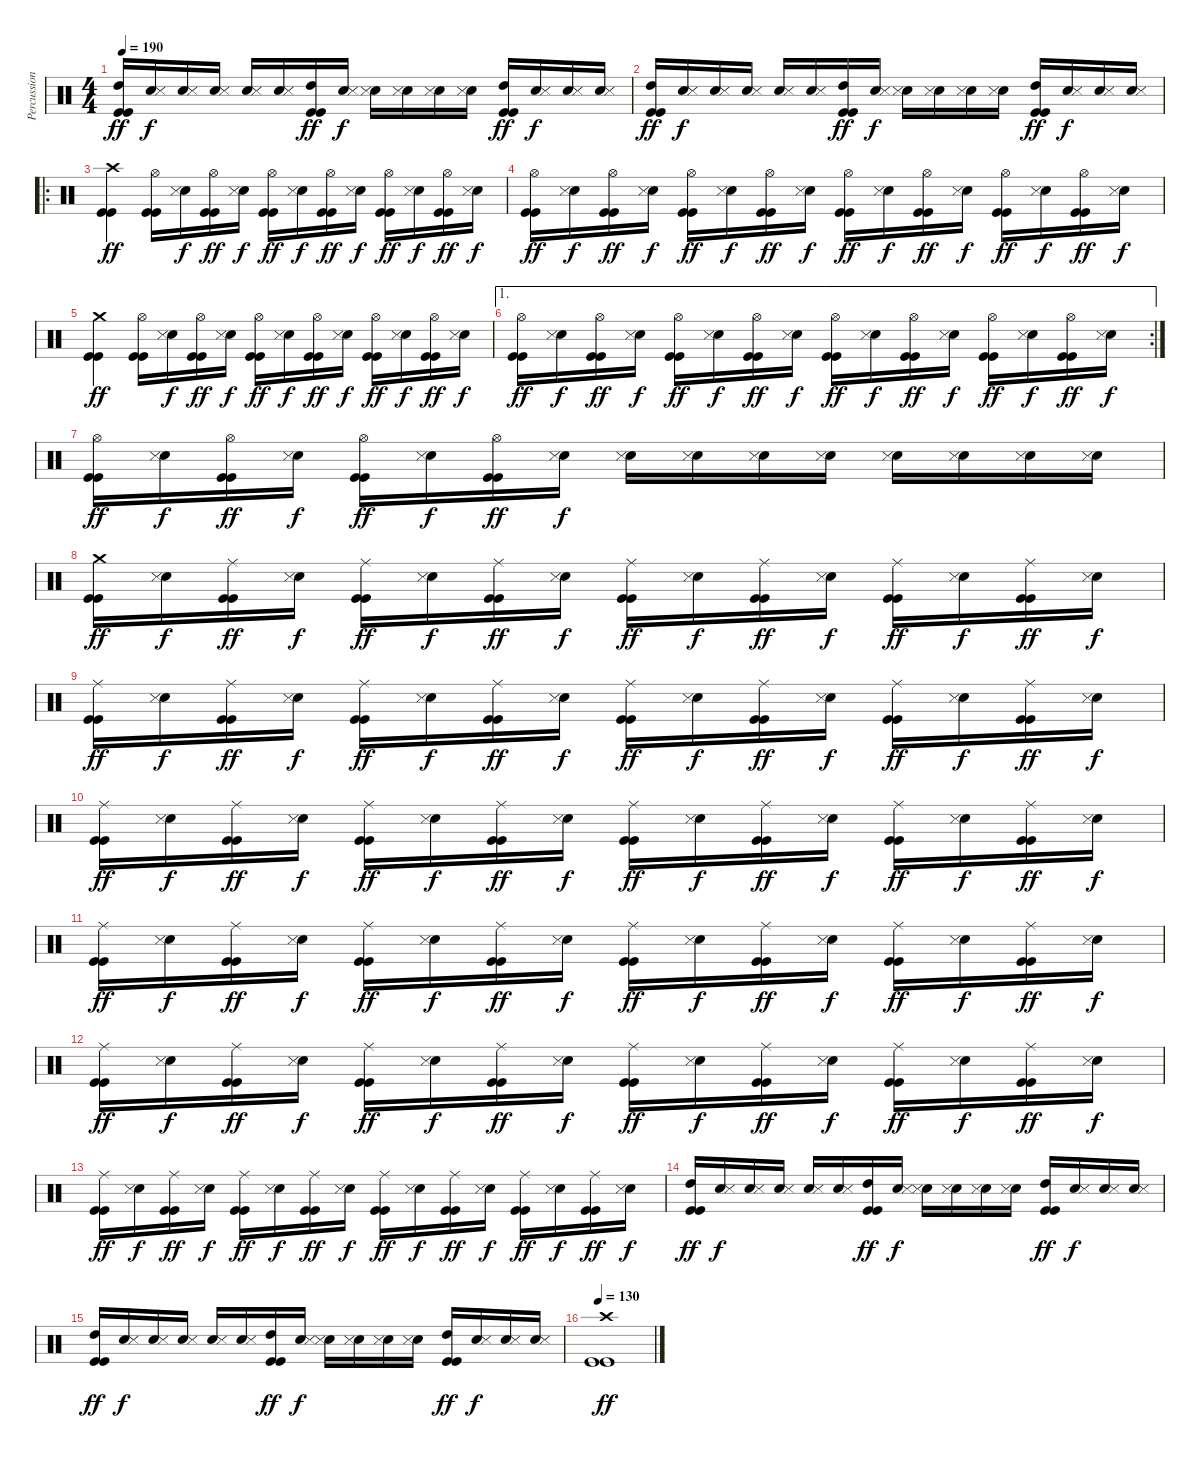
\track ("Percussion" "Percussion") {instrument percussion}
\staff {score}
\articulation defaults
\ts (4 4)
\tempo 190
\clef neutral
\ks c
("High Tom (hit)" "Kick (hit)" "Kick (hit)").16{dy ff} ("Electric Snare (hit)" "Snare (side stick) 3").16{dy f} ("Electric Snare (hit)" "Snare (side stick) 3").16 ("Electric Snare (hit)" "Snare (side stick) 3").16 ("Electric Snare (hit)" "Snare (side stick) 3").16 ("Electric Snare (hit)" "Snare (side stick) 3").16 ("High Tom (hit)" "Kick (hit)" "Kick (hit)").16{dy ff} ("Electric Snare (hit)" "Snare (side stick) 3").16{dy f} ("Electric Snare (hit)" "Snare (side stick) 3").16 ("Electric Snare (hit)" "Snare (side stick) 3").16 ("Electric Snare (hit)" "Snare (side stick) 3").16 ("Electric Snare (hit)" "Snare (side stick) 3").16 ("High Tom (hit)" "Kick (hit)" "Kick (hit)").16{dy ff} ("Electric Snare (hit)" "Snare (side stick) 3").16{dy f} ("Electric Snare (hit)" "Snare (side stick) 3").16 ("Electric Snare (hit)" "Snare (side stick) 3").16 |
("High Tom (hit)" "Kick (hit)" "Kick (hit)").16{dy ff} ("Electric Snare (hit)" "Snare (side stick) 3").16{dy f} ("Electric Snare (hit)" "Snare (side stick) 3").16 ("Electric Snare (hit)" "Snare (side stick) 3").16 ("Electric Snare (hit)" "Snare (side stick) 3").16 ("Electric Snare (hit)" "Snare (side stick) 3").16 ("High Tom (hit)" "Kick (hit)" "Kick (hit)").16{dy ff} ("Electric Snare (hit)" "Snare (side stick) 3").16{dy f} ("Electric Snare (hit)" "Snare (side stick) 3").16 ("Electric Snare (hit)" "Snare (side stick) 3").16 ("Electric Snare (hit)" "Snare (side stick) 3").16 ("Electric Snare (hit)" "Snare (side stick) 3").16 ("High Tom (hit)" "Kick (hit)" "Kick (hit)").16{dy ff} ("Electric Snare (hit)" "Snare (side stick) 3").16{dy f} ("Electric Snare (hit)" "Snare (side stick) 3").16 ("Electric Snare (hit)" "Snare (side stick) 3").16 |
\ro
("Crash high (hit)" "Kick (hit)" "Kick (hit)").4{dy ff} ("Hi-Hat (open)" "Kick (hit)" "Kick (hit)").16 ("Electric Snare (hit)" "Snare (side stick) 3").16{dy f} ("Hi-Hat (open)" "Kick (hit)" "Kick (hit)").16{dy ff} ("Electric Snare (hit)" "Snare (side stick) 3").16{dy f} ("Hi-Hat (open)" "Kick (hit)" "Kick (hit)").16{dy ff} ("Electric Snare (hit)" "Snare (side stick) 3").16{dy f} ("Hi-Hat (open)" "Kick (hit)" "Kick (hit)").16{dy ff} ("Electric Snare (hit)" "Snare (side stick) 3").16{dy f} ("Hi-Hat (open)" "Kick (hit)" "Kick (hit)").16{dy ff} ("Electric Snare (hit)" "Snare (side stick) 3").16{dy f} ("Hi-Hat (open)" "Kick (hit)" "Kick (hit)").16{dy ff} ("Electric Snare (hit)" "Snare (side stick) 3").16{dy f} |
("Hi-Hat (open)" "Kick (hit)" "Kick (hit)").16{dy ff} ("Electric Snare (hit)" "Snare (side stick) 3").16{dy f} ("Hi-Hat (open)" "Kick (hit)" "Kick (hit)").16{dy ff} ("Electric Snare (hit)" "Snare (side stick) 3").16{dy f} ("Hi-Hat (open)" "Kick (hit)" "Kick (hit)").16{dy ff} ("Electric Snare (hit)" "Snare (side stick) 3").16{dy f} ("Hi-Hat (open)" "Kick (hit)" "Kick (hit)").16{dy ff} ("Electric Snare (hit)" "Snare (side stick) 3").16{dy f} ("Hi-Hat (open)" "Kick (hit)" "Kick (hit)").16{dy ff} ("Electric Snare (hit)" "Snare (side stick) 3").16{dy f} ("Hi-Hat (open)" "Kick (hit)" "Kick (hit)").16{dy ff} ("Electric Snare (hit)" "Snare (side stick) 3").16{dy f} ("Hi-Hat (open)" "Kick (hit)" "Kick (hit)").16{dy ff} ("Electric Snare (hit)" "Snare (side stick) 3").16{dy f} ("Hi-Hat (open)" "Kick (hit)" "Kick (hit)").16{dy ff} ("Electric Snare (hit)" "Snare (side stick) 3").16{dy f} |
("Crash medium (hit)" "Kick (hit)" "Kick (hit)").4{dy ff} ("Hi-Hat (open)" "Kick (hit)" "Kick (hit)").16 ("Electric Snare (hit)" "Snare (side stick) 3").16{dy f} ("Hi-Hat (open)" "Kick (hit)" "Kick (hit)").16{dy ff} ("Electric Snare (hit)" "Snare (side stick) 3").16{dy f} ("Hi-Hat (open)" "Kick (hit)" "Kick (hit)").16{dy ff} ("Electric Snare (hit)" "Snare (side stick) 3").16{dy f} ("Hi-Hat (open)" "Kick (hit)" "Kick (hit)").16{dy ff} ("Electric Snare (hit)" "Snare (side stick) 3").16{dy f} ("Hi-Hat (open)" "Kick (hit)" "Kick (hit)").16{dy ff} ("Electric Snare (hit)" "Snare (side stick) 3").16{dy f} ("Hi-Hat (open)" "Kick (hit)" "Kick (hit)").16{dy ff} ("Electric Snare (hit)" "Snare (side stick) 3").16{dy f} |
\ae 1
\rc 2
("Hi-Hat (open)" "Kick (hit)" "Kick (hit)").16{dy ff} ("Electric Snare (hit)" "Snare (side stick) 3").16{dy f} ("Hi-Hat (open)" "Kick (hit)" "Kick (hit)").16{dy ff} ("Electric Snare (hit)" "Snare (side stick) 3").16{dy f} ("Hi-Hat (open)" "Kick (hit)" "Kick (hit)").16{dy ff} ("Electric Snare (hit)" "Snare (side stick) 3").16{dy f} ("Hi-Hat (open)" "Kick (hit)" "Kick (hit)").16{dy ff} ("Electric Snare (hit)" "Snare (side stick) 3").16{dy f} ("Hi-Hat (open)" "Kick (hit)" "Kick (hit)").16{dy ff} ("Electric Snare (hit)" "Snare (side stick) 3").16{dy f} ("Hi-Hat (open)" "Kick (hit)" "Kick (hit)").16{dy ff} ("Electric Snare (hit)" "Snare (side stick) 3").16{dy f} ("Hi-Hat (open)" "Kick (hit)" "Kick (hit)").16{dy ff} ("Electric Snare (hit)" "Snare (side stick) 3").16{dy f} ("Hi-Hat (open)" "Kick (hit)" "Kick (hit)").16{dy ff} ("Electric Snare (hit)" "Snare (side stick) 3").16{dy f} |
("Hi-Hat (open)" "Kick (hit)" "Kick (hit)").16{dy ff} ("Electric Snare (hit)" "Snare (side stick) 3").16{dy f} ("Hi-Hat (open)" "Kick (hit)" "Kick (hit)").16{dy ff} ("Electric Snare (hit)" "Snare (side stick) 3").16{dy f} ("Hi-Hat (open)" "Kick (hit)" "Kick (hit)").16{dy ff} ("Electric Snare (hit)" "Snare (side stick) 3").16{dy f} ("Hi-Hat (open)" "Kick (hit)" "Kick (hit)").16{dy ff} ("Electric Snare (hit)" "Snare (side stick) 3").16{dy f} ("Electric Snare (hit)" "Snare (side stick) 3").16 ("Electric Snare (hit)" "Snare (side stick) 3").16 ("Electric Snare (hit)" "Snare (side stick) 3").16 ("Electric Snare (hit)" "Snare (side stick) 3").16 ("Electric Snare (hit)" "Snare (side stick) 3").16 ("Electric Snare (hit)" "Snare (side stick) 3").16 ("Electric Snare (hit)" "Snare (side stick) 3").16 ("Electric Snare (hit)" "Snare (side stick) 3").16 |
("Crash medium (hit)" "Kick (hit)" "Kick (hit)").16{dy ff} ("Electric Snare (hit)" "Snare (side stick) 3").16{dy f} ("Ride (middle)" "Kick (hit)" "Kick (hit)").16{dy ff} ("Electric Snare (hit)" "Snare (side stick) 3").16{dy f} ("Ride (middle)" "Kick (hit)" "Kick (hit)").16{dy ff} ("Electric Snare (hit)" "Snare (side stick) 3").16{dy f} ("Ride (middle)" "Kick (hit)" "Kick (hit)").16{dy ff} ("Electric Snare (hit)" "Snare (side stick) 3").16{dy f} ("Ride (middle)" "Kick (hit)" "Kick (hit)").16{dy ff} ("Electric Snare (hit)" "Snare (side stick) 3").16{dy f} ("Ride (middle)" "Kick (hit)" "Kick (hit)").16{dy ff} ("Electric Snare (hit)" "Snare (side stick) 3").16{dy f} ("Ride (middle)" "Kick (hit)" "Kick (hit)").16{dy ff} ("Electric Snare (hit)" "Snare (side stick) 3").16{dy f} ("Ride (middle)" "Kick (hit)" "Kick (hit)").16{dy ff} ("Electric Snare (hit)" "Snare (side stick) 3").16{dy f} |
("Ride (middle)" "Kick (hit)" "Kick (hit)").16{dy ff} ("Electric Snare (hit)" "Snare (side stick) 3").16{dy f} ("Ride (middle)" "Kick (hit)" "Kick (hit)").16{dy ff} ("Electric Snare (hit)" "Snare (side stick) 3").16{dy f} ("Ride (middle)" "Kick (hit)" "Kick (hit)").16{dy ff} ("Electric Snare (hit)" "Snare (side stick) 3").16{dy f} ("Ride (middle)" "Kick (hit)" "Kick (hit)").16{dy ff} ("Electric Snare (hit)" "Snare (side stick) 3").16{dy f} ("Ride (middle)" "Kick (hit)" "Kick (hit)").16{dy ff} ("Electric Snare (hit)" "Snare (side stick) 3").16{dy f} ("Ride (middle)" "Kick (hit)" "Kick (hit)").16{dy ff} ("Electric Snare (hit)" "Snare (side stick) 3").16{dy f} ("Ride (middle)" "Kick (hit)" "Kick (hit)").16{dy ff} ("Electric Snare (hit)" "Snare (side stick) 3").16{dy f} ("Ride (middle)" "Kick (hit)" "Kick (hit)").16{dy ff} ("Electric Snare (hit)" "Snare (side stick) 3").16{dy f} |
("Ride (middle)" "Kick (hit)" "Kick (hit)").16{dy ff} ("Electric Snare (hit)" "Snare (side stick) 3").16{dy f} ("Ride (middle)" "Kick (hit)" "Kick (hit)").16{dy ff} ("Electric Snare (hit)" "Snare (side stick) 3").16{dy f} ("Ride (middle)" "Kick (hit)" "Kick (hit)").16{dy ff} ("Electric Snare (hit)" "Snare (side stick) 3").16{dy f} ("Ride (middle)" "Kick (hit)" "Kick (hit)").16{dy ff} ("Electric Snare (hit)" "Snare (side stick) 3").16{dy f} ("Ride (middle)" "Kick (hit)" "Kick (hit)").16{dy ff} ("Electric Snare (hit)" "Snare (side stick) 3").16{dy f} ("Ride (middle)" "Kick (hit)" "Kick (hit)").16{dy ff} ("Electric Snare (hit)" "Snare (side stick) 3").16{dy f} ("Ride (middle)" "Kick (hit)" "Kick (hit)").16{dy ff} ("Electric Snare (hit)" "Snare (side stick) 3").16{dy f} ("Ride (middle)" "Kick (hit)" "Kick (hit)").16{dy ff} ("Electric Snare (hit)" "Snare (side stick) 3").16{dy f} |
("Ride (middle)" "Kick (hit)" "Kick (hit)").16{dy ff} ("Electric Snare (hit)" "Snare (side stick) 3").16{dy f} ("Ride (middle)" "Kick (hit)" "Kick (hit)").16{dy ff} ("Electric Snare (hit)" "Snare (side stick) 3").16{dy f} ("Ride (middle)" "Kick (hit)" "Kick (hit)").16{dy ff} ("Electric Snare (hit)" "Snare (side stick) 3").16{dy f} ("Ride (middle)" "Kick (hit)" "Kick (hit)").16{dy ff} ("Electric Snare (hit)" "Snare (side stick) 3").16{dy f} ("Ride (middle)" "Kick (hit)" "Kick (hit)").16{dy ff} ("Electric Snare (hit)" "Snare (side stick) 3").16{dy f} ("Ride (middle)" "Kick (hit)" "Kick (hit)").16{dy ff} ("Electric Snare (hit)" "Snare (side stick) 3").16{dy f} ("Ride (middle)" "Kick (hit)" "Kick (hit)").16{dy ff} ("Electric Snare (hit)" "Snare (side stick) 3").16{dy f} ("Ride (middle)" "Kick (hit)" "Kick (hit)").16{dy ff} ("Electric Snare (hit)" "Snare (side stick) 3").16{dy f} |
("Ride (middle)" "Kick (hit)" "Kick (hit)").16{dy ff} ("Electric Snare (hit)" "Snare (side stick) 3").16{dy f} ("Ride (middle)" "Kick (hit)" "Kick (hit)").16{dy ff} ("Electric Snare (hit)" "Snare (side stick) 3").16{dy f} ("Ride (middle)" "Kick (hit)" "Kick (hit)").16{dy ff} ("Electric Snare (hit)" "Snare (side stick) 3").16{dy f} ("Ride (middle)" "Kick (hit)" "Kick (hit)").16{dy ff} ("Electric Snare (hit)" "Snare (side stick) 3").16{dy f} ("Ride (middle)" "Kick (hit)" "Kick (hit)").16{dy ff} ("Electric Snare (hit)" "Snare (side stick) 3").16{dy f} ("Ride (middle)" "Kick (hit)" "Kick (hit)").16{dy ff} ("Electric Snare (hit)" "Snare (side stick) 3").16{dy f} ("Ride (middle)" "Kick (hit)" "Kick (hit)").16{dy ff} ("Electric Snare (hit)" "Snare (side stick) 3").16{dy f} ("Ride (middle)" "Kick (hit)" "Kick (hit)").16{dy ff} ("Electric Snare (hit)" "Snare (side stick) 3").16{dy f} |
("Ride (middle)" "Kick (hit)" "Kick (hit)").16{dy ff} ("Electric Snare (hit)" "Snare (side stick) 3").16{dy f} ("Ride (middle)" "Kick (hit)" "Kick (hit)").16{dy ff} ("Electric Snare (hit)" "Snare (side stick) 3").16{dy f} ("Ride (middle)" "Kick (hit)" "Kick (hit)").16{dy ff} ("Electric Snare (hit)" "Snare (side stick) 3").16{dy f} ("Ride (middle)" "Kick (hit)" "Kick (hit)").16{dy ff} ("Electric Snare (hit)" "Snare (side stick) 3").16{dy f} ("Ride (middle)" "Kick (hit)" "Kick (hit)").16{dy ff} ("Electric Snare (hit)" "Snare (side stick) 3").16{dy f} ("Ride (middle)" "Kick (hit)" "Kick (hit)").16{dy ff} ("Electric Snare (hit)" "Snare (side stick) 3").16{dy f} ("Ride (middle)" "Kick (hit)" "Kick (hit)").16{dy ff} ("Electric Snare (hit)" "Snare (side stick) 3").16{dy f} ("Ride (middle)" "Kick (hit)" "Kick (hit)").16{dy ff} ("Electric Snare (hit)" "Snare (side stick) 3").16{dy f} |
("High Tom (hit)" "Kick (hit)" "Kick (hit)").16{dy ff} ("Electric Snare (hit)" "Snare (side stick) 3").16{dy f} ("Electric Snare (hit)" "Snare (side stick) 3").16 ("Electric Snare (hit)" "Snare (side stick) 3").16 ("Electric Snare (hit)" "Snare (side stick) 3").16 ("Electric Snare (hit)" "Snare (side stick) 3").16 ("High Tom (hit)" "Kick (hit)" "Kick (hit)").16{dy ff} ("Electric Snare (hit)" "Snare (side stick) 3").16{dy f} ("Electric Snare (hit)" "Snare (side stick) 3").16 ("Electric Snare (hit)" "Snare (side stick) 3").16 ("Electric Snare (hit)" "Snare (side stick) 3").16 ("Electric Snare (hit)" "Snare (side stick) 3").16 ("High Tom (hit)" "Kick (hit)" "Kick (hit)").16{dy ff} ("Electric Snare (hit)" "Snare (side stick) 3").16{dy f} ("Electric Snare (hit)" "Snare (side stick) 3").16 ("Electric Snare (hit)" "Snare (side stick) 3").16 |
("High Tom (hit)" "Kick (hit)" "Kick (hit)").16{dy ff} ("Electric Snare (hit)" "Snare (side stick) 3").16{dy f} ("Electric Snare (hit)" "Snare (side stick) 3").16 ("Electric Snare (hit)" "Snare (side stick) 3").16 ("Electric Snare (hit)" "Snare (side stick) 3").16 ("Electric Snare (hit)" "Snare (side stick) 3").16 ("High Tom (hit)" "Kick (hit)" "Kick (hit)").16{dy ff} ("Electric Snare (hit)" "Snare (side stick) 3").16{dy f} ("Electric Snare (hit)" "Snare (side stick) 3").16 ("Electric Snare (hit)" "Snare (side stick) 3").16 ("Electric Snare (hit)" "Snare (side stick) 3").16 ("Electric Snare (hit)" "Snare (side stick) 3").16 ("High Tom (hit)" "Kick (hit)" "Kick (hit)").16{dy ff} ("Electric Snare (hit)" "Snare (side stick) 3").16{dy f} ("Electric Snare (hit)" "Snare (side stick) 3").16 ("Electric Snare (hit)" "Snare (side stick) 3").16 |
\tempo 130
("Crash high (hit)" "Kick (hit)" "Kick (hit)").1{dy ff}
